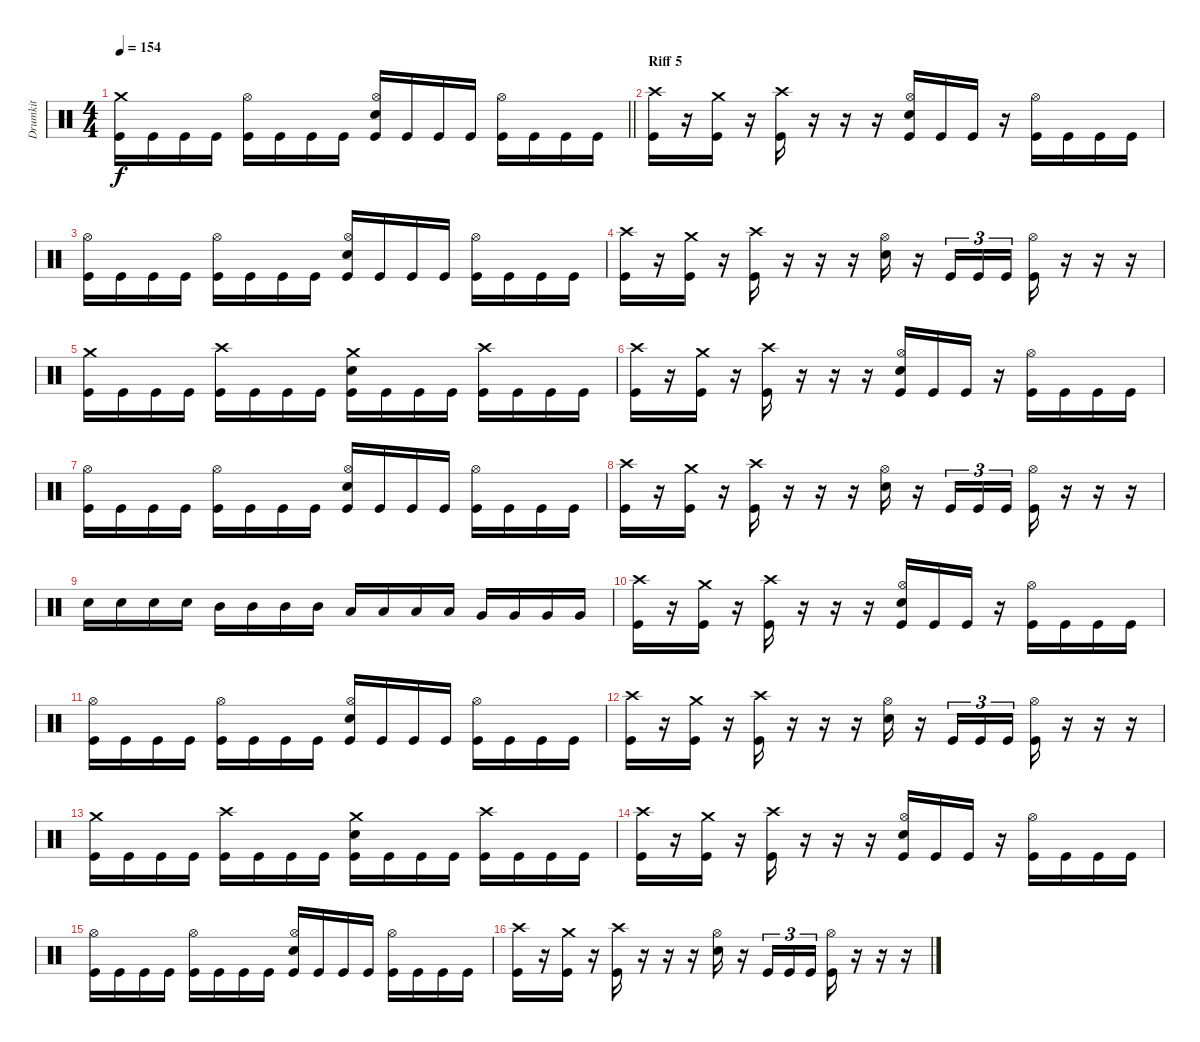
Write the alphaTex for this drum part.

\track ("Drumkit" "Drumkit") {mute instrument percussion}
\staff {score}
\articulation defaults
\ts (4 4)
\tempo 154
\clef neutral
\barLineRight lightlight
\ks c
("Crash medium (hit)" "Kick (hit)").16{dy f} "Kick (hit)".16 "Kick (hit)".16 "Kick (hit)".16 ("Hi-Hat (open)" "Kick (hit)").16 "Kick (hit)".16 "Kick (hit)".16 "Kick (hit)".16 ("Hi-Hat (open)" "Snare (hit) 2" "Kick (hit)").16 "Kick (hit)".16 "Kick (hit)".16 "Kick (hit)".16 ("Hi-Hat (open)" "Kick (hit)").16 "Kick (hit)".16 "Kick (hit)".16 "Kick (hit)".16 |
\section ("" "Riff 5")
("Crash high (hit)" "Kick (hit)").16 r.16 ("Crash medium (hit)" "Kick (hit)").16 r.16 ("Crash high (hit)" "Kick (hit)").16 r.16 r.16 r.16 ("Hi-Hat (open)" "Snare (hit) 2" "Kick (hit)").16 "Kick (hit)".16 "Kick (hit)".16 r.16 ("Hi-Hat (open)" "Kick (hit)").16 "Kick (hit)".16 "Kick (hit)".16 "Kick (hit)".16 |
("Hi-Hat (open)" "Kick (hit)").16 "Kick (hit)".16 "Kick (hit)".16 "Kick (hit)".16 ("Hi-Hat (open)" "Kick (hit)").16 "Kick (hit)".16 "Kick (hit)".16 "Kick (hit)".16 ("Hi-Hat (open)" "Snare (hit) 2" "Kick (hit)").16 "Kick (hit)".16 "Kick (hit)".16 "Kick (hit)".16 ("Hi-Hat (open)" "Kick (hit)").16 "Kick (hit)".16 "Kick (hit)".16 "Kick (hit)".16 |
("Crash high (hit)" "Kick (hit)").16 r.16 ("Crash medium (hit)" "Kick (hit)").16 r.16 ("Crash high (hit)" "Kick (hit)").16 r.16 r.16 r.16 ("Hi-Hat (open)" "Snare (hit) 2").16 r.16 "Kick (hit)".16{tu (3 2)} "Kick (hit)".16{tu (3 2)} "Kick (hit)".16{tu (3 2)} ("Hi-Hat (open)" "Kick (hit)").16 r.16 r.16 r.16 |
("Crash medium (hit)" "Kick (hit)").16 "Kick (hit)".16 "Kick (hit)".16 "Kick (hit)".16 ("Crash high (hit)" "Kick (hit)").16 "Kick (hit)".16 "Kick (hit)".16 "Kick (hit)".16 ("Crash medium (hit)" "Snare (hit) 2" "Kick (hit)").16 "Kick (hit)".16 "Kick (hit)".16 "Kick (hit)".16 ("Crash high (hit)" "Kick (hit)").16 "Kick (hit)".16 "Kick (hit)".16 "Kick (hit)".16 |
("Crash high (hit)" "Kick (hit)").16 r.16 ("Crash medium (hit)" "Kick (hit)").16 r.16 ("Crash high (hit)" "Kick (hit)").16 r.16 r.16 r.16 ("Hi-Hat (open)" "Snare (hit) 2" "Kick (hit)").16 "Kick (hit)".16 "Kick (hit)".16 r.16 ("Hi-Hat (open)" "Kick (hit)").16 "Kick (hit)".16 "Kick (hit)".16 "Kick (hit)".16 |
("Hi-Hat (open)" "Kick (hit)").16 "Kick (hit)".16 "Kick (hit)".16 "Kick (hit)".16 ("Hi-Hat (open)" "Kick (hit)").16 "Kick (hit)".16 "Kick (hit)".16 "Kick (hit)".16 ("Hi-Hat (open)" "Snare (hit) 2" "Kick (hit)").16 "Kick (hit)".16 "Kick (hit)".16 "Kick (hit)".16 ("Hi-Hat (open)" "Kick (hit)").16 "Kick (hit)".16 "Kick (hit)".16 "Kick (hit)".16 |
("Crash high (hit)" "Kick (hit)").16 r.16 ("Crash medium (hit)" "Kick (hit)").16 r.16 ("Crash high (hit)" "Kick (hit)").16 r.16 r.16 r.16 ("Hi-Hat (open)" "Snare (hit) 2").16 r.16 "Kick (hit)".16{tu (3 2)} "Kick (hit)".16{tu (3 2)} "Kick (hit)".16{tu (3 2)} ("Hi-Hat (open)" "Kick (hit)").16 r.16 r.16 r.16 |
"Snare (hit) 2".16 "Snare (hit) 2".16 "Snare (hit) 2".16 "Snare (hit) 2".16 "Mid Tom (hit)".16 "Mid Tom (hit)".16 "Mid Tom (hit)".16 "Mid Tom (hit)".16 "Low Tom (hit)".16 "Low Tom (hit)".16 "Low Tom (hit)".16 "Low Tom (hit)".16 "Very Low Tom (hit)".16 "Very Low Tom (hit)".16 "Very Low Tom (hit)".16 "Very Low Tom (hit)".16 |
("Crash high (hit)" "Kick (hit)").16 r.16 ("Crash medium (hit)" "Kick (hit)").16 r.16 ("Crash high (hit)" "Kick (hit)").16 r.16 r.16 r.16 ("Hi-Hat (open)" "Snare (hit) 2" "Kick (hit)").16 "Kick (hit)".16 "Kick (hit)".16 r.16 ("Hi-Hat (open)" "Kick (hit)").16 "Kick (hit)".16 "Kick (hit)".16 "Kick (hit)".16 |
("Hi-Hat (open)" "Kick (hit)").16 "Kick (hit)".16 "Kick (hit)".16 "Kick (hit)".16 ("Hi-Hat (open)" "Kick (hit)").16 "Kick (hit)".16 "Kick (hit)".16 "Kick (hit)".16 ("Hi-Hat (open)" "Snare (hit) 2" "Kick (hit)").16 "Kick (hit)".16 "Kick (hit)".16 "Kick (hit)".16 ("Hi-Hat (open)" "Kick (hit)").16 "Kick (hit)".16 "Kick (hit)".16 "Kick (hit)".16 |
("Crash high (hit)" "Kick (hit)").16 r.16 ("Crash medium (hit)" "Kick (hit)").16 r.16 ("Crash high (hit)" "Kick (hit)").16 r.16 r.16 r.16 ("Hi-Hat (open)" "Snare (hit) 2").16 r.16 "Kick (hit)".16{tu (3 2)} "Kick (hit)".16{tu (3 2)} "Kick (hit)".16{tu (3 2)} ("Hi-Hat (open)" "Kick (hit)").16 r.16 r.16 r.16 |
("Crash medium (hit)" "Kick (hit)").16 "Kick (hit)".16 "Kick (hit)".16 "Kick (hit)".16 ("Crash high (hit)" "Kick (hit)").16 "Kick (hit)".16 "Kick (hit)".16 "Kick (hit)".16 ("Crash medium (hit)" "Snare (hit) 2" "Kick (hit)").16 "Kick (hit)".16 "Kick (hit)".16 "Kick (hit)".16 ("Crash high (hit)" "Kick (hit)").16 "Kick (hit)".16 "Kick (hit)".16 "Kick (hit)".16 |
("Crash high (hit)" "Kick (hit)").16 r.16 ("Crash medium (hit)" "Kick (hit)").16 r.16 ("Crash high (hit)" "Kick (hit)").16 r.16 r.16 r.16 ("Hi-Hat (open)" "Snare (hit) 2" "Kick (hit)").16 "Kick (hit)".16 "Kick (hit)".16 r.16 ("Hi-Hat (open)" "Kick (hit)").16 "Kick (hit)".16 "Kick (hit)".16 "Kick (hit)".16 |
("Hi-Hat (open)" "Kick (hit)").16 "Kick (hit)".16 "Kick (hit)".16 "Kick (hit)".16 ("Hi-Hat (open)" "Kick (hit)").16 "Kick (hit)".16 "Kick (hit)".16 "Kick (hit)".16 ("Hi-Hat (open)" "Snare (hit) 2" "Kick (hit)").16 "Kick (hit)".16 "Kick (hit)".16 "Kick (hit)".16 ("Hi-Hat (open)" "Kick (hit)").16 "Kick (hit)".16 "Kick (hit)".16 "Kick (hit)".16 |
("Crash high (hit)" "Kick (hit)").16 r.16 ("Crash medium (hit)" "Kick (hit)").16 r.16 ("Crash high (hit)" "Kick (hit)").16 r.16 r.16 r.16 ("Hi-Hat (open)" "Snare (hit) 2").16 r.16 "Kick (hit)".16{tu (3 2)} "Kick (hit)".16{tu (3 2)} "Kick (hit)".16{tu (3 2)} ("Hi-Hat (open)" "Kick (hit)").16 r.16 r.16 r.16
